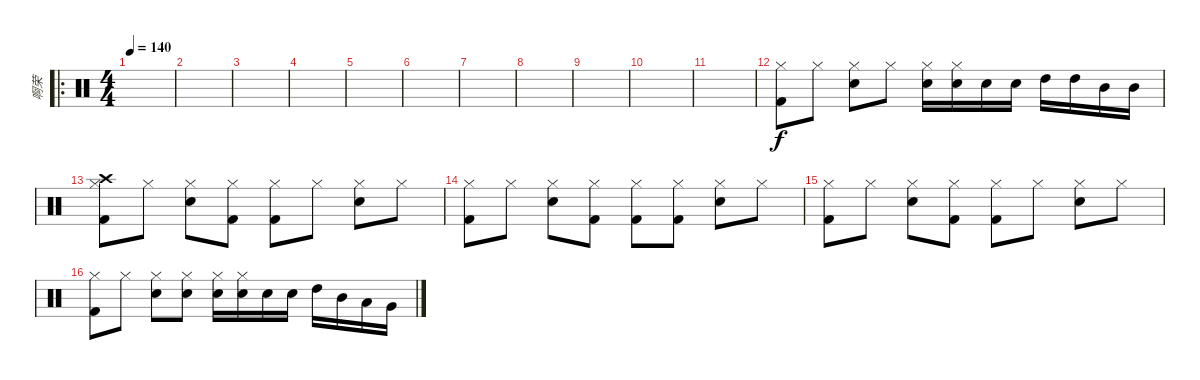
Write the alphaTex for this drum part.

\track ("啊荣" "啊荣") {instrument percussion}
\staff {score}
\articulation defaults
\ro
\ts (4 4)
\tempo 140
\clef neutral
\ks c
|
|
|
|
|
|
|
|
|
|
|
("Hi-Hat (closed)" "Kick (hit) 2").8 "Hi-Hat (closed)".8 ("Hi-Hat (closed)" "Electric Snare (hit)").8 "Hi-Hat (closed)".8 ("Hi-Hat (closed)" "Electric Snare (hit)").16 ("Hi-Hat (closed)" "Electric Snare (hit)").16 "Electric Snare (hit)".16 "Electric Snare (hit)".16 "High Tom (hit)".16 "High Tom (hit)".16 "Mid Tom (hit)".16 "Mid Tom (hit)".16 |
("Hi-Hat (closed)" "Crash high (hit)" "Kick (hit) 2").8 "Hi-Hat (closed)".8 ("Hi-Hat (closed)" "Electric Snare (hit)").8 ("Hi-Hat (closed)" "Kick (hit) 2").8 ("Hi-Hat (closed)" "Kick (hit) 2").8 "Hi-Hat (closed)".8 ("Hi-Hat (closed)" "Electric Snare (hit)").8 "Hi-Hat (closed)".8 |
("Hi-Hat (closed)" "Kick (hit) 2").8 "Hi-Hat (closed)".8 ("Hi-Hat (closed)" "Electric Snare (hit)").8 ("Hi-Hat (closed)" "Kick (hit) 2").8 ("Hi-Hat (closed)" "Kick (hit) 2").8 ("Hi-Hat (closed)" "Kick (hit) 2").8 ("Hi-Hat (closed)" "Electric Snare (hit)").8 "Hi-Hat (closed)".8 |
("Hi-Hat (closed)" "Kick (hit) 2").8 "Hi-Hat (closed)".8 ("Hi-Hat (closed)" "Electric Snare (hit)").8 ("Hi-Hat (closed)" "Kick (hit) 2").8 ("Hi-Hat (closed)" "Kick (hit) 2").8 "Hi-Hat (closed)".8 ("Hi-Hat (closed)" "Electric Snare (hit)").8 "Hi-Hat (closed)".8 |
("Hi-Hat (closed)" "Kick (hit) 2").8 "Hi-Hat (closed)".8 ("Hi-Hat (closed)" "Electric Snare (hit)").8 ("Hi-Hat (closed)" "Electric Snare (hit)").8 ("Hi-Hat (closed)" "Electric Snare (hit)").16 ("Hi-Hat (closed)" "Electric Snare (hit)").16 "Electric Snare (hit)".16 "Electric Snare (hit)".16 "High Tom (hit)".16 "Mid Tom (hit)".16 "Low Tom (hit)".16 "Very Low Tom (hit)".16
